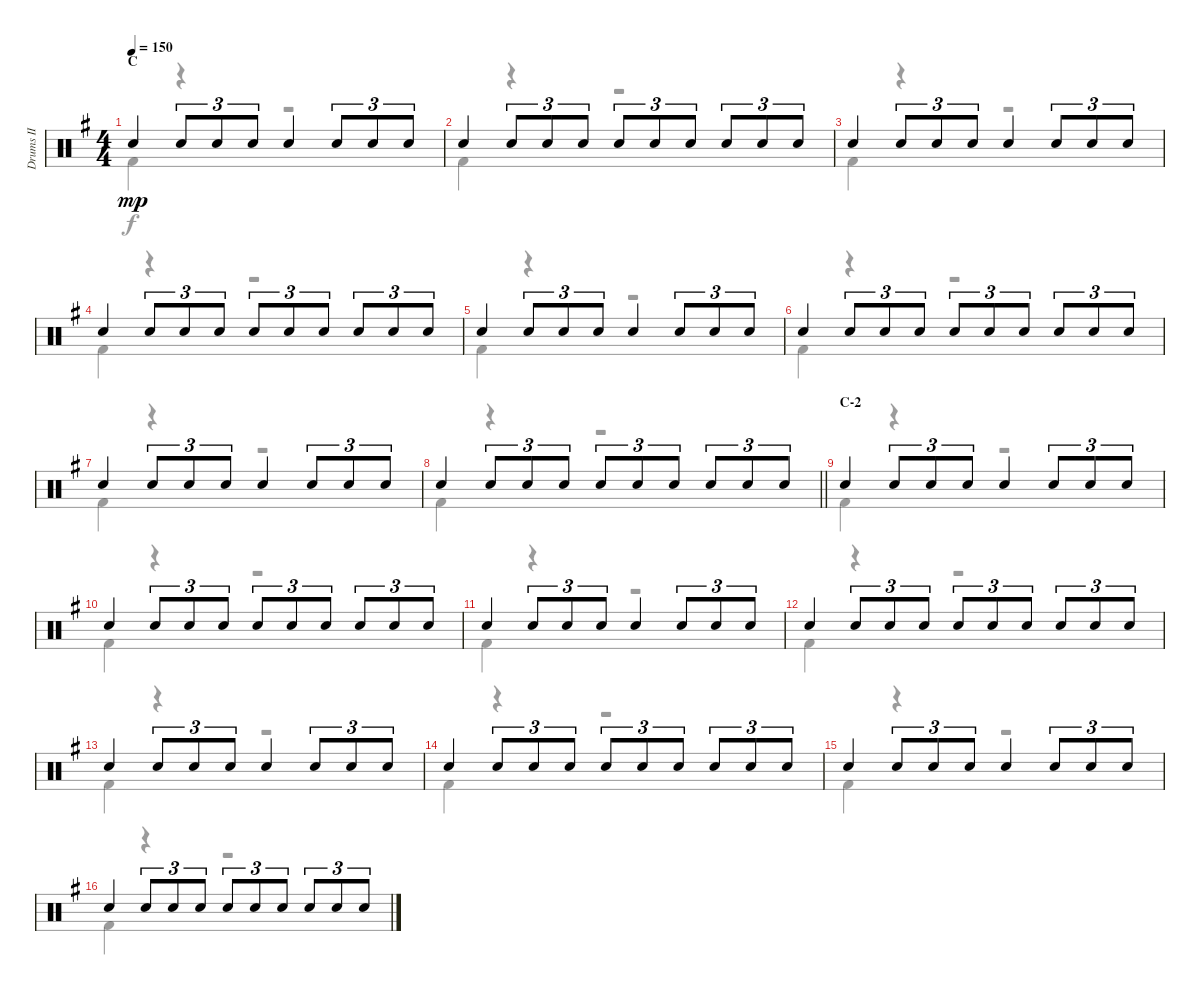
\track ("Drums II" "Drums II") {instrument percussion}
\staff {score}
\articulation defaults
\voice
\ts (4 4)
\section ("" "C")
\tempo 150
\clef neutral
\ks g "Electric Snare (hit)".4{dy mp} "Electric Snare (hit)".8{tu (3 2)} "Electric Snare (hit)".8{tu (3 2)} "Electric Snare (hit)".8{tu (3 2)} "Electric Snare (hit)".4 "Electric Snare (hit)".8{tu (3 2)} "Electric Snare (hit)".8{tu (3 2)} "Electric Snare (hit)".8{tu (3 2)}
|
"Electric Snare (hit)".4 "Electric Snare (hit)".8{tu (3 2)} "Electric Snare (hit)".8{tu (3 2)} "Electric Snare (hit)".8{tu (3 2)} "Electric Snare (hit)".8{tu (3 2)} "Electric Snare (hit)".8{tu (3 2)} "Electric Snare (hit)".8{tu (3 2)} "Electric Snare (hit)".8{tu (3 2)} "Electric Snare (hit)".8{tu (3 2)} "Electric Snare (hit)".8{tu (3 2)} |
"Electric Snare (hit)".4 "Electric Snare (hit)".8{tu (3 2)} "Electric Snare (hit)".8{tu (3 2)} "Electric Snare (hit)".8{tu (3 2)} "Electric Snare (hit)".4 "Electric Snare (hit)".8{tu (3 2)} "Electric Snare (hit)".8{tu (3 2)} "Electric Snare (hit)".8{tu (3 2)} |
"Electric Snare (hit)".4 "Electric Snare (hit)".8{tu (3 2)} "Electric Snare (hit)".8{tu (3 2)} "Electric Snare (hit)".8{tu (3 2)} "Electric Snare (hit)".8{tu (3 2)} "Electric Snare (hit)".8{tu (3 2)} "Electric Snare (hit)".8{tu (3 2)} "Electric Snare (hit)".8{tu (3 2)} "Electric Snare (hit)".8{tu (3 2)} "Electric Snare (hit)".8{tu (3 2)} |
"Electric Snare (hit)".4 "Electric Snare (hit)".8{tu (3 2)} "Electric Snare (hit)".8{tu (3 2)} "Electric Snare (hit)".8{tu (3 2)} "Electric Snare (hit)".4 "Electric Snare (hit)".8{tu (3 2)} "Electric Snare (hit)".8{tu (3 2)} "Electric Snare (hit)".8{tu (3 2)} |
"Electric Snare (hit)".4 "Electric Snare (hit)".8{tu (3 2)} "Electric Snare (hit)".8{tu (3 2)} "Electric Snare (hit)".8{tu (3 2)} "Electric Snare (hit)".8{tu (3 2)} "Electric Snare (hit)".8{tu (3 2)} "Electric Snare (hit)".8{tu (3 2)} "Electric Snare (hit)".8{tu (3 2)} "Electric Snare (hit)".8{tu (3 2)} "Electric Snare (hit)".8{tu (3 2)} |
"Electric Snare (hit)".4 "Electric Snare (hit)".8{tu (3 2)} "Electric Snare (hit)".8{tu (3 2)} "Electric Snare (hit)".8{tu (3 2)} "Electric Snare (hit)".4 "Electric Snare (hit)".8{tu (3 2)} "Electric Snare (hit)".8{tu (3 2)} "Electric Snare (hit)".8{tu (3 2)} |
\barLineRight lightlight "Electric Snare (hit)".4 "Electric Snare (hit)".8{tu (3 2)} "Electric Snare (hit)".8{tu (3 2)} "Electric Snare (hit)".8{tu (3 2)} "Electric Snare (hit)".8{tu (3 2)} "Electric Snare (hit)".8{tu (3 2)} "Electric Snare (hit)".8{tu (3 2)} "Electric Snare (hit)".8{tu (3 2)} "Electric Snare (hit)".8{tu (3 2)} "Electric Snare (hit)".8{tu (3 2)}
|
\section ("" "C-2")
"Electric Snare (hit)".4 "Electric Snare (hit)".8{tu (3 2)} "Electric Snare (hit)".8{tu (3 2)} "Electric Snare (hit)".8{tu (3 2)} "Electric Snare (hit)".4 "Electric Snare (hit)".8{tu (3 2)} "Electric Snare (hit)".8{tu (3 2)} "Electric Snare (hit)".8{tu (3 2)} |
"Electric Snare (hit)".4 "Electric Snare (hit)".8{tu (3 2)} "Electric Snare (hit)".8{tu (3 2)} "Electric Snare (hit)".8{tu (3 2)} "Electric Snare (hit)".8{tu (3 2)} "Electric Snare (hit)".8{tu (3 2)} "Electric Snare (hit)".8{tu (3 2)} "Electric Snare (hit)".8{tu (3 2)} "Electric Snare (hit)".8{tu (3 2)} "Electric Snare (hit)".8{tu (3 2)} |
"Electric Snare (hit)".4 "Electric Snare (hit)".8{tu (3 2)} "Electric Snare (hit)".8{tu (3 2)} "Electric Snare (hit)".8{tu (3 2)} "Electric Snare (hit)".4 "Electric Snare (hit)".8{tu (3 2)} "Electric Snare (hit)".8{tu (3 2)} "Electric Snare (hit)".8{tu (3 2)} |
"Electric Snare (hit)".4 "Electric Snare (hit)".8{tu (3 2)} "Electric Snare (hit)".8{tu (3 2)} "Electric Snare (hit)".8{tu (3 2)} "Electric Snare (hit)".8{tu (3 2)} "Electric Snare (hit)".8{tu (3 2)} "Electric Snare (hit)".8{tu (3 2)} "Electric Snare (hit)".8{tu (3 2)} "Electric Snare (hit)".8{tu (3 2)} "Electric Snare (hit)".8{tu (3 2)} |
"Electric Snare (hit)".4 "Electric Snare (hit)".8{tu (3 2)} "Electric Snare (hit)".8{tu (3 2)} "Electric Snare (hit)".8{tu (3 2)} "Electric Snare (hit)".4 "Electric Snare (hit)".8{tu (3 2)} "Electric Snare (hit)".8{tu (3 2)} "Electric Snare (hit)".8{tu (3 2)} |
"Electric Snare (hit)".4 "Electric Snare (hit)".8{tu (3 2)} "Electric Snare (hit)".8{tu (3 2)} "Electric Snare (hit)".8{tu (3 2)} "Electric Snare (hit)".8{tu (3 2)} "Electric Snare (hit)".8{tu (3 2)} "Electric Snare (hit)".8{tu (3 2)} "Electric Snare (hit)".8{tu (3 2)} "Electric Snare (hit)".8{tu (3 2)} "Electric Snare (hit)".8{tu (3 2)} |
"Electric Snare (hit)".4 "Electric Snare (hit)".8{tu (3 2)} "Electric Snare (hit)".8{tu (3 2)} "Electric Snare (hit)".8{tu (3 2)} "Electric Snare (hit)".4 "Electric Snare (hit)".8{tu (3 2)} "Electric Snare (hit)".8{tu (3 2)} "Electric Snare (hit)".8{tu (3 2)} |
"Electric Snare (hit)".4 "Electric Snare (hit)".8{tu (3 2)} "Electric Snare (hit)".8{tu (3 2)} "Electric Snare (hit)".8{tu (3 2)} "Electric Snare (hit)".8{tu (3 2)} "Electric Snare (hit)".8{tu (3 2)} "Electric Snare (hit)".8{tu (3 2)} "Electric Snare (hit)".8{tu (3 2)} "Electric Snare (hit)".8{tu (3 2)} "Electric Snare (hit)".8{tu (3 2)}
\voice
\clef neutral
\ottava regular
\simile none
\ks g "Kick (hit) 2".4{dy f}
r.4 r.2 |
"Kick (hit) 2".4 r.4 r.2 |
"Kick (hit) 2".4 r.4 r.2 |
"Kick (hit) 2".4 r.4 r.2 |
"Kick (hit) 2".4 r.4 r.2 |
"Kick (hit) 2".4 r.4 r.2 |
"Kick (hit) 2".4 r.4 r.2 |
\barLineRight lightlight "Kick (hit) 2".4
r.4 r.2 |
"Kick (hit) 2".4 r.4 r.2 |
"Kick (hit) 2".4 r.4 r.2 |
"Kick (hit) 2".4 r.4 r.2 |
"Kick (hit) 2".4 r.4 r.2 |
"Kick (hit) 2".4 r.4 r.2 |
"Kick (hit) 2".4 r.4 r.2 |
"Kick (hit) 2".4 r.4 r.2 |
"Kick (hit) 2".4 r.4 r.2
